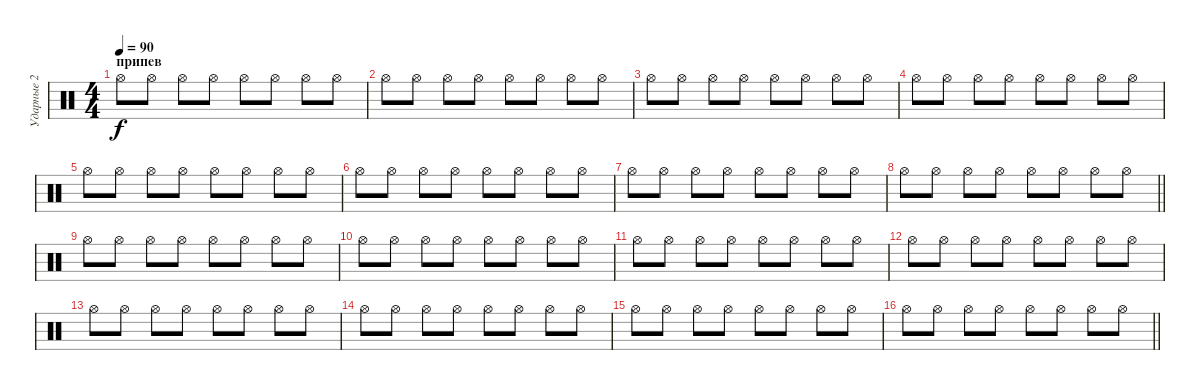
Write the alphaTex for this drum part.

\track ("Ударные 2" "Ударные 2") {instrument percussion}
\staff {score}
\articulation defaults
\ts (4 4)
\section ("" "припев")
\tempo 90
\clef neutral
\ks c "Hi-Hat (open)".8{dy f} "Hi-Hat (open)".8 "Hi-Hat (open)".8 "Hi-Hat (open)".8 "Hi-Hat (open)".8 "Hi-Hat (open)".8 "Hi-Hat (open)".8 "Hi-Hat (open)".8
|
"Hi-Hat (open)".8 "Hi-Hat (open)".8 "Hi-Hat (open)".8 "Hi-Hat (open)".8 "Hi-Hat (open)".8 "Hi-Hat (open)".8 "Hi-Hat (open)".8 "Hi-Hat (open)".8 |
"Hi-Hat (open)".8 "Hi-Hat (open)".8 "Hi-Hat (open)".8 "Hi-Hat (open)".8 "Hi-Hat (open)".8 "Hi-Hat (open)".8 "Hi-Hat (open)".8 "Hi-Hat (open)".8 |
"Hi-Hat (open)".8 "Hi-Hat (open)".8 "Hi-Hat (open)".8 "Hi-Hat (open)".8 "Hi-Hat (open)".8 "Hi-Hat (open)".8 "Hi-Hat (open)".8 "Hi-Hat (open)".8 |
"Hi-Hat (open)".8 "Hi-Hat (open)".8 "Hi-Hat (open)".8 "Hi-Hat (open)".8 "Hi-Hat (open)".8 "Hi-Hat (open)".8 "Hi-Hat (open)".8 "Hi-Hat (open)".8 |
"Hi-Hat (open)".8 "Hi-Hat (open)".8 "Hi-Hat (open)".8 "Hi-Hat (open)".8 "Hi-Hat (open)".8 "Hi-Hat (open)".8 "Hi-Hat (open)".8 "Hi-Hat (open)".8 |
"Hi-Hat (open)".8 "Hi-Hat (open)".8 "Hi-Hat (open)".8 "Hi-Hat (open)".8 "Hi-Hat (open)".8 "Hi-Hat (open)".8 "Hi-Hat (open)".8 "Hi-Hat (open)".8 |
\barLineRight lightlight "Hi-Hat (open)".8 "Hi-Hat (open)".8 "Hi-Hat (open)".8 "Hi-Hat (open)".8 "Hi-Hat (open)".8 "Hi-Hat (open)".8 "Hi-Hat (open)".8 "Hi-Hat (open)".8
|
"Hi-Hat (open)".8 "Hi-Hat (open)".8 "Hi-Hat (open)".8 "Hi-Hat (open)".8 "Hi-Hat (open)".8 "Hi-Hat (open)".8 "Hi-Hat (open)".8 "Hi-Hat (open)".8 |
"Hi-Hat (open)".8 "Hi-Hat (open)".8 "Hi-Hat (open)".8 "Hi-Hat (open)".8 "Hi-Hat (open)".8 "Hi-Hat (open)".8 "Hi-Hat (open)".8 "Hi-Hat (open)".8 |
"Hi-Hat (open)".8 "Hi-Hat (open)".8 "Hi-Hat (open)".8 "Hi-Hat (open)".8 "Hi-Hat (open)".8 "Hi-Hat (open)".8 "Hi-Hat (open)".8 "Hi-Hat (open)".8 |
"Hi-Hat (open)".8 "Hi-Hat (open)".8 "Hi-Hat (open)".8 "Hi-Hat (open)".8 "Hi-Hat (open)".8 "Hi-Hat (open)".8 "Hi-Hat (open)".8 "Hi-Hat (open)".8 |
"Hi-Hat (open)".8 "Hi-Hat (open)".8 "Hi-Hat (open)".8 "Hi-Hat (open)".8 "Hi-Hat (open)".8 "Hi-Hat (open)".8 "Hi-Hat (open)".8 "Hi-Hat (open)".8 |
"Hi-Hat (open)".8 "Hi-Hat (open)".8 "Hi-Hat (open)".8 "Hi-Hat (open)".8 "Hi-Hat (open)".8 "Hi-Hat (open)".8 "Hi-Hat (open)".8 "Hi-Hat (open)".8 |
"Hi-Hat (open)".8 "Hi-Hat (open)".8 "Hi-Hat (open)".8 "Hi-Hat (open)".8 "Hi-Hat (open)".8 "Hi-Hat (open)".8 "Hi-Hat (open)".8 "Hi-Hat (open)".8 |
\barLineRight lightlight "Hi-Hat (open)".8 "Hi-Hat (open)".8 "Hi-Hat (open)".8 "Hi-Hat (open)".8 "Hi-Hat (open)".8 "Hi-Hat (open)".8 "Hi-Hat (open)".8 "Hi-Hat (open)".8
